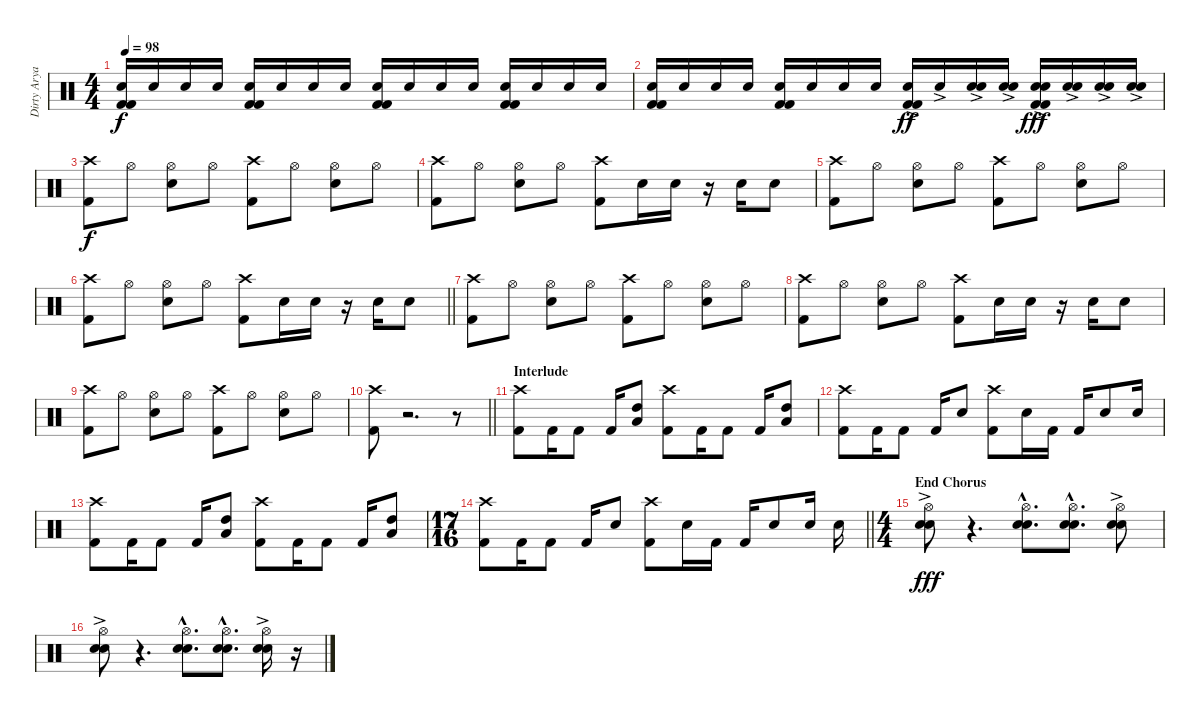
\track ("Dirty Arya" "Dirty Arya") {instrument percussion}
\staff {score}
\articulation defaults
\ts (4 4)
\tempo 98
\clef neutral
\ks c
("Electric Snare (hit)" "Kick (hit) 2" "Kick (hit) 2").16{dy f} "Electric Snare (hit)".16 "Electric Snare (hit)".16 "Electric Snare (hit)".16 ("Electric Snare (hit)" "Kick (hit) 2" "Kick (hit) 2").16 "Electric Snare (hit)".16 "Electric Snare (hit)".16 "Electric Snare (hit)".16 ("Electric Snare (hit)" "Kick (hit) 2" "Kick (hit) 2").16 "Electric Snare (hit)".16 "Electric Snare (hit)".16 "Electric Snare (hit)".16 ("Electric Snare (hit)" "Kick (hit) 2" "Kick (hit) 2").16 "Electric Snare (hit)".16 "Electric Snare (hit)".16 "Electric Snare (hit)".16 |
("Electric Snare (hit)" "Kick (hit) 2" "Kick (hit) 2").16 "Electric Snare (hit)".16 "Electric Snare (hit)".16 "Electric Snare (hit)".16 ("Electric Snare (hit)" "Kick (hit) 2" "Kick (hit) 2").16 "Electric Snare (hit)".16 "Electric Snare (hit)".16 "Electric Snare (hit)".16 ("Electric Snare (hit)"{ac} "Kick (hit) 2" "Kick (hit) 2").16{dy ff} "Electric Snare (hit)"{ac}.16 ("Electric Snare (hit)" "Electric Snare (hit)"{ac}).16 ("Electric Snare (hit)" "Electric Snare (hit)"{ac}).16 ("Electric Snare (hit)" "Electric Snare (hit)"{ac} "Kick (hit) 2" "Kick (hit) 2").16{dy fff} ("Electric Snare (hit)"{ac} "Electric Snare (hit)"{ac}).16 ("Electric Snare (hit)"{ac} "Electric Snare (hit)"{ac}).16 ("Electric Snare (hit)"{ac} "Electric Snare (hit)"{ac}).16 |
("Crash high (hit)" "Kick (hit) 2").8{dy f} "Hi-Hat (open)".8 ("Hi-Hat (open)" "Electric Snare (hit)").8 "Hi-Hat (open)".8 ("Crash high (hit)" "Kick (hit) 2").8 "Hi-Hat (open)".8 ("Hi-Hat (open)" "Electric Snare (hit)").8 "Hi-Hat (open)".8 |
("Crash high (hit)" "Kick (hit) 2").8 "Hi-Hat (open)".8 ("Hi-Hat (open)" "Electric Snare (hit)").8 "Hi-Hat (open)".8 ("Crash high (hit)" "Kick (hit) 2").8 "Electric Snare (hit)".16 "Electric Snare (hit)".16 r.16 "Electric Snare (hit)".16 "Electric Snare (hit)".8 |
("Crash high (hit)" "Kick (hit) 2").8 "Hi-Hat (open)".8 ("Hi-Hat (open)" "Electric Snare (hit)").8 "Hi-Hat (open)".8 ("Crash high (hit)" "Kick (hit) 2").8 "Hi-Hat (open)".8 ("Hi-Hat (open)" "Electric Snare (hit)").8 "Hi-Hat (open)".8 |
\barLineRight lightlight
("Crash high (hit)" "Kick (hit) 2").8 "Hi-Hat (open)".8 ("Hi-Hat (open)" "Electric Snare (hit)").8 "Hi-Hat (open)".8 ("Crash high (hit)" "Kick (hit) 2").8 "Electric Snare (hit)".16 "Electric Snare (hit)".16 r.16 "Electric Snare (hit)".16 "Electric Snare (hit)".8 |
("Crash high (hit)" "Kick (hit) 2").8 "Hi-Hat (open)".8 ("Hi-Hat (open)" "Electric Snare (hit)").8 "Hi-Hat (open)".8 ("Crash high (hit)" "Kick (hit) 2").8 "Hi-Hat (open)".8 ("Hi-Hat (open)" "Electric Snare (hit)").8 "Hi-Hat (open)".8 |
("Crash high (hit)" "Kick (hit) 2").8 "Hi-Hat (open)".8 ("Hi-Hat (open)" "Electric Snare (hit)").8 "Hi-Hat (open)".8 ("Crash high (hit)" "Kick (hit) 2").8 "Electric Snare (hit)".16 "Electric Snare (hit)".16 r.16 "Electric Snare (hit)".16 "Electric Snare (hit)".8 |
("Crash high (hit)" "Kick (hit) 2").8 "Hi-Hat (open)".8 ("Hi-Hat (open)" "Electric Snare (hit)").8 "Hi-Hat (open)".8 ("Crash high (hit)" "Kick (hit) 2").8 "Hi-Hat (open)".8 ("Hi-Hat (open)" "Electric Snare (hit)").8 "Hi-Hat (open)".8 |
\barLineRight lightlight
("Crash high (hit)" "Kick (hit) 2").8 r.2{d} r.8 |
\section ("" "Interlude")
("Crash high (hit)" "Kick (hit) 2").8 "Kick (hit) 2".16 "Kick (hit) 2".8 "Kick (hit) 2".16 ("High Tom (hit)" "Low Tom (hit)").8 ("Crash high (hit)" "Kick (hit) 2").8 "Kick (hit) 2".16 "Kick (hit) 2".8 "Kick (hit) 2".16 ("High Tom (hit)" "Low Tom (hit)").8 |
("Crash high (hit)" "Kick (hit) 2").8 "Kick (hit) 2".16 "Kick (hit) 2".8 "Kick (hit) 2".16 "Electric Snare (hit)".8 ("Crash high (hit)" "Kick (hit) 2").8 "Electric Snare (hit)".16 "Kick (hit) 2".16 "Kick (hit) 2".16 "Electric Snare (hit)".8 "Electric Snare (hit)".16 |
("Crash high (hit)" "Kick (hit) 2").8 "Kick (hit) 2".16 "Kick (hit) 2".8 "Kick (hit) 2".16 ("High Tom (hit)" "Low Tom (hit)").8 ("Crash high (hit)" "Kick (hit) 2").8 "Kick (hit) 2".16 "Kick (hit) 2".8 "Kick (hit) 2".16 ("High Tom (hit)" "Low Tom (hit)").8 |
\ts (17 16)
\barLineRight lightlight
("Crash high (hit)" "Kick (hit) 2").8 "Kick (hit) 2".16 "Kick (hit) 2".8 "Kick (hit) 2".16 "Electric Snare (hit)".8 ("Crash high (hit)" "Kick (hit) 2").8 "Electric Snare (hit)".16 "Kick (hit) 2".16 "Kick (hit) 2".16 "Electric Snare (hit)".8 "Electric Snare (hit)".16 "Electric Snare (hit)".16 |
\ts (4 4)
\section ("" "End Chorus")
("Hi-Hat (open)" "Electric Snare (hit)"{ac} "Electric Snare (hit)"{ac}).8{dy fff} r.4{d} ("Hi-Hat (open)"{hac} "Electric Snare (hit)"{hac} "Electric Snare (hit)"{hac}).8{d} ("Hi-Hat (open)"{hac} "Electric Snare (hit)"{hac} "Electric Snare (hit)"{hac}).8{d} ("Hi-Hat (open)" "Electric Snare (hit)"{ac} "Electric Snare (hit)"{ac}).8 |
("Hi-Hat (open)" "Electric Snare (hit)" "Electric Snare (hit)"{ac}).8 r.4{d} ("Hi-Hat (open)"{hac} "Electric Snare (hit)"{hac} "Electric Snare (hit)"{hac}).8{d} ("Hi-Hat (open)"{hac} "Electric Snare (hit)"{hac} "Electric Snare (hit)"{hac}).8{d} ("Hi-Hat (open)" "Electric Snare (hit)" "Electric Snare (hit)"{ac}).16 r.16{volume 7}
